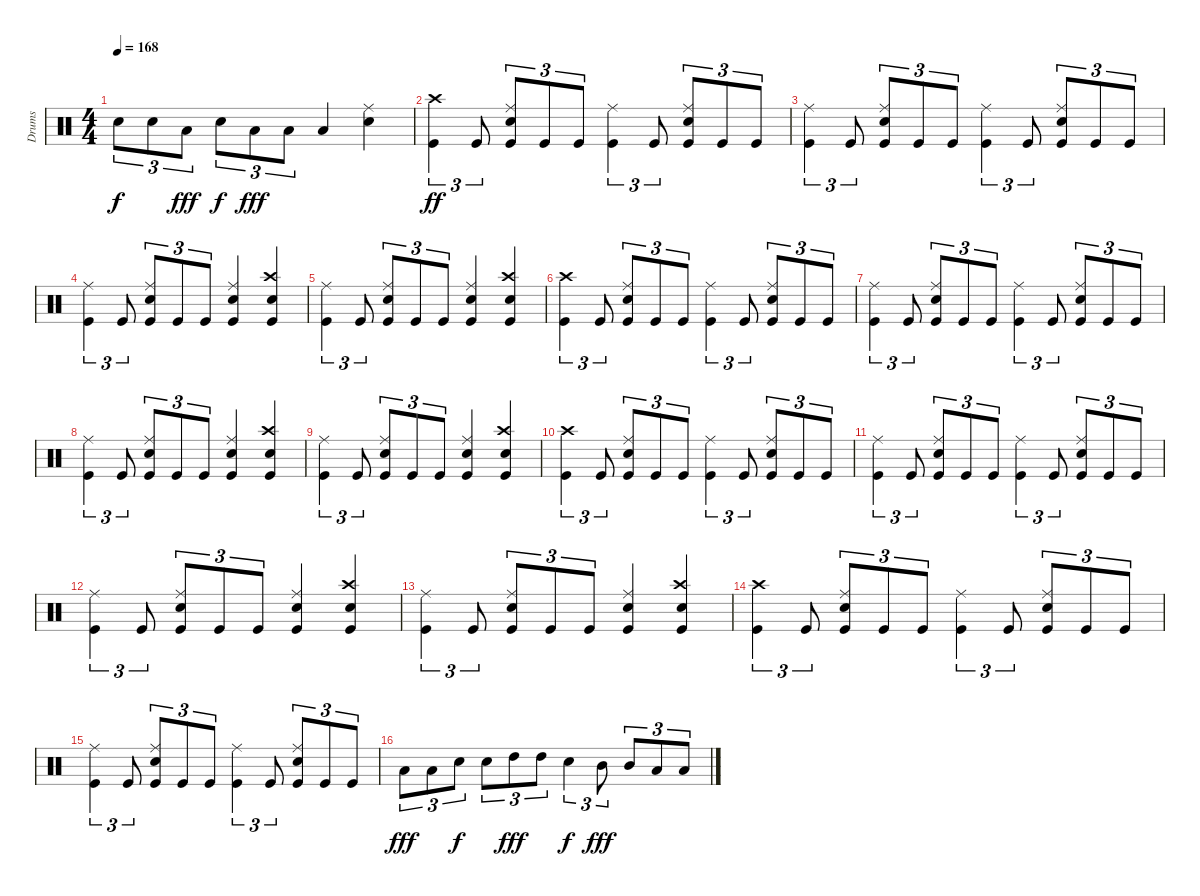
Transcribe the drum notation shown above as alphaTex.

\track ("Drums" "Drums") {instrument percussion}
\staff {score}
\articulation defaults
\ts (4 4)
\tempo 168
\clef neutral
\ks c "Electric Snare (hit)".8{tu (3 2) dy f} "Electric Snare (hit)".8{tu (3 2)} "Low Tom (hit)".8{tu (3 2) dy fff} "Electric Snare (hit)".8{tu (3 2) dy f} "Low Tom (hit)".8{tu (3 2) dy fff} "Low Tom (hit)".8{tu (3 2)} "Low Tom (hit)".4
("Ride (middle)" "Electric Snare (hit)").4 |
("Crash high (hit)" "Kick (hit)").4{tu (3 2) dy ff} "Kick (hit)".8{tu (3 2)} ("Ride (middle)" "Electric Snare (hit)" "Kick (hit)").8{tu (3 2)} "Kick (hit)".8{tu (3 2)} "Kick (hit)".8{tu (3 2)} ("Ride (middle)" "Kick (hit)").4{tu (3 2)} "Kick (hit)".8{tu (3 2)} ("Ride (middle)" "Electric Snare (hit)" "Kick (hit)").8{tu (3 2)} "Kick (hit)".8{tu (3 2)} "Kick (hit)".8{tu (3 2)} |
("Ride (middle)" "Kick (hit)").4{tu (3 2)} "Kick (hit)".8{tu (3 2)} ("Ride (middle)" "Electric Snare (hit)" "Kick (hit)").8{tu (3 2)} "Kick (hit)".8{tu (3 2)} "Kick (hit)".8{tu (3 2)} ("Ride (middle)" "Kick (hit)").4{tu (3 2)} "Kick (hit)".8{tu (3 2)} ("Ride (middle)" "Electric Snare (hit)" "Kick (hit)").8{tu (3 2)} "Kick (hit)".8{tu (3 2)} "Kick (hit)".8{tu (3 2)} |
("Ride (middle)" "Kick (hit)").4{tu (3 2)} "Kick (hit)".8{tu (3 2)} ("Ride (middle)" "Electric Snare (hit)" "Kick (hit)").8{tu (3 2)} "Kick (hit)".8{tu (3 2)} "Kick (hit)".8{tu (3 2)} ("Ride (middle)" "Electric Snare (hit)" "Kick (hit)").4 ("Crash high (hit)" "Electric Snare (hit)" "Kick (hit)").4 |
("Ride (middle)" "Kick (hit)").4{tu (3 2)} "Kick (hit)".8{tu (3 2)} ("Ride (middle)" "Electric Snare (hit)" "Kick (hit)").8{tu (3 2)} "Kick (hit)".8{tu (3 2)} "Kick (hit)".8{tu (3 2)} ("Ride (middle)" "Electric Snare (hit)" "Kick (hit)").4 ("Crash high (hit)" "Electric Snare (hit)" "Kick (hit)").4 |
("Crash high (hit)" "Kick (hit)").4{tu (3 2)} "Kick (hit)".8{tu (3 2)} ("Ride (middle)" "Electric Snare (hit)" "Kick (hit)").8{tu (3 2)} "Kick (hit)".8{tu (3 2)} "Kick (hit)".8{tu (3 2)} ("Ride (middle)" "Kick (hit)").4{tu (3 2)} "Kick (hit)".8{tu (3 2)} ("Ride (middle)" "Electric Snare (hit)" "Kick (hit)").8{tu (3 2)} "Kick (hit)".8{tu (3 2)} "Kick (hit)".8{tu (3 2)} |
("Ride (middle)" "Kick (hit)").4{tu (3 2)} "Kick (hit)".8{tu (3 2)} ("Ride (middle)" "Electric Snare (hit)" "Kick (hit)").8{tu (3 2)} "Kick (hit)".8{tu (3 2)} "Kick (hit)".8{tu (3 2)} ("Ride (middle)" "Kick (hit)").4{tu (3 2)} "Kick (hit)".8{tu (3 2)} ("Ride (middle)" "Electric Snare (hit)" "Kick (hit)").8{tu (3 2)} "Kick (hit)".8{tu (3 2)} "Kick (hit)".8{tu (3 2)} |
("Ride (middle)" "Kick (hit)").4{tu (3 2)} "Kick (hit)".8{tu (3 2)} ("Ride (middle)" "Electric Snare (hit)" "Kick (hit)").8{tu (3 2)} "Kick (hit)".8{tu (3 2)} "Kick (hit)".8{tu (3 2)} ("Ride (middle)" "Electric Snare (hit)" "Kick (hit)").4 ("Crash high (hit)" "Electric Snare (hit)" "Kick (hit)").4 |
("Ride (middle)" "Kick (hit)").4{tu (3 2)} "Kick (hit)".8{tu (3 2)} ("Ride (middle)" "Electric Snare (hit)" "Kick (hit)").8{tu (3 2)} "Kick (hit)".8{tu (3 2)} "Kick (hit)".8{tu (3 2)} ("Ride (middle)" "Electric Snare (hit)" "Kick (hit)").4 ("Crash high (hit)" "Electric Snare (hit)" "Kick (hit)").4 |
("Crash high (hit)" "Kick (hit)").4{tu (3 2)} "Kick (hit)".8{tu (3 2)} ("Ride (middle)" "Electric Snare (hit)" "Kick (hit)").8{tu (3 2)} "Kick (hit)".8{tu (3 2)} "Kick (hit)".8{tu (3 2)} ("Ride (middle)" "Kick (hit)").4{tu (3 2)} "Kick (hit)".8{tu (3 2)} ("Ride (middle)" "Electric Snare (hit)" "Kick (hit)").8{tu (3 2)} "Kick (hit)".8{tu (3 2)} "Kick (hit)".8{tu (3 2)} |
("Ride (middle)" "Kick (hit)").4{tu (3 2)} "Kick (hit)".8{tu (3 2)} ("Ride (middle)" "Electric Snare (hit)" "Kick (hit)").8{tu (3 2)} "Kick (hit)".8{tu (3 2)} "Kick (hit)".8{tu (3 2)} ("Ride (middle)" "Kick (hit)").4{tu (3 2)} "Kick (hit)".8{tu (3 2)} ("Ride (middle)" "Electric Snare (hit)" "Kick (hit)").8{tu (3 2)} "Kick (hit)".8{tu (3 2)} "Kick (hit)".8{tu (3 2)} |
("Ride (middle)" "Kick (hit)").4{tu (3 2)} "Kick (hit)".8{tu (3 2)} ("Ride (middle)" "Electric Snare (hit)" "Kick (hit)").8{tu (3 2)} "Kick (hit)".8{tu (3 2)} "Kick (hit)".8{tu (3 2)} ("Ride (middle)" "Electric Snare (hit)" "Kick (hit)").4 ("Crash high (hit)" "Electric Snare (hit)" "Kick (hit)").4 |
("Ride (middle)" "Kick (hit)").4{tu (3 2)} "Kick (hit)".8{tu (3 2)} ("Ride (middle)" "Electric Snare (hit)" "Kick (hit)").8{tu (3 2)} "Kick (hit)".8{tu (3 2)} "Kick (hit)".8{tu (3 2)} ("Ride (middle)" "Electric Snare (hit)" "Kick (hit)").4 ("Crash high (hit)" "Electric Snare (hit)" "Kick (hit)").4 |
("Crash high (hit)" "Kick (hit)").4{tu (3 2)} "Kick (hit)".8{tu (3 2)} ("Ride (middle)" "Electric Snare (hit)" "Kick (hit)").8{tu (3 2)} "Kick (hit)".8{tu (3 2)} "Kick (hit)".8{tu (3 2)} ("Ride (middle)" "Kick (hit)").4{tu (3 2)} "Kick (hit)".8{tu (3 2)} ("Ride (middle)" "Electric Snare (hit)" "Kick (hit)").8{tu (3 2)} "Kick (hit)".8{tu (3 2)} "Kick (hit)".8{tu (3 2)} |
("Ride (middle)" "Kick (hit)").4{tu (3 2)} "Kick (hit)".8{tu (3 2)} ("Ride (middle)" "Electric Snare (hit)" "Kick (hit)").8{tu (3 2)} "Kick (hit)".8{tu (3 2)} "Kick (hit)".8{tu (3 2)} ("Ride (middle)" "Kick (hit)").4{tu (3 2)} "Kick (hit)".8{tu (3 2)} ("Ride (middle)" "Electric Snare (hit)" "Kick (hit)").8{tu (3 2)} "Kick (hit)".8{tu (3 2)} "Kick (hit)".8{tu (3 2)} |
"Low Tom (hit)".8{tu (3 2) dy fff} "Low Tom (hit)".8{tu (3 2)} "Electric Snare (hit)".8{tu (3 2) dy f} "Electric Snare (hit)".8{tu (3 2)} "High Tom (hit)".8{tu (3 2) dy fff} "High Tom (hit)".8{tu (3 2)} "Electric Snare (hit)".4{tu (3 2) dy f} "Mid Tom (hit)".8{tu (3 2) dy fff} "Mid Tom (hit)".8{tu (3 2)} "Low Tom (hit)".8{tu (3 2)} "Low Tom (hit)".8{tu (3 2)}
